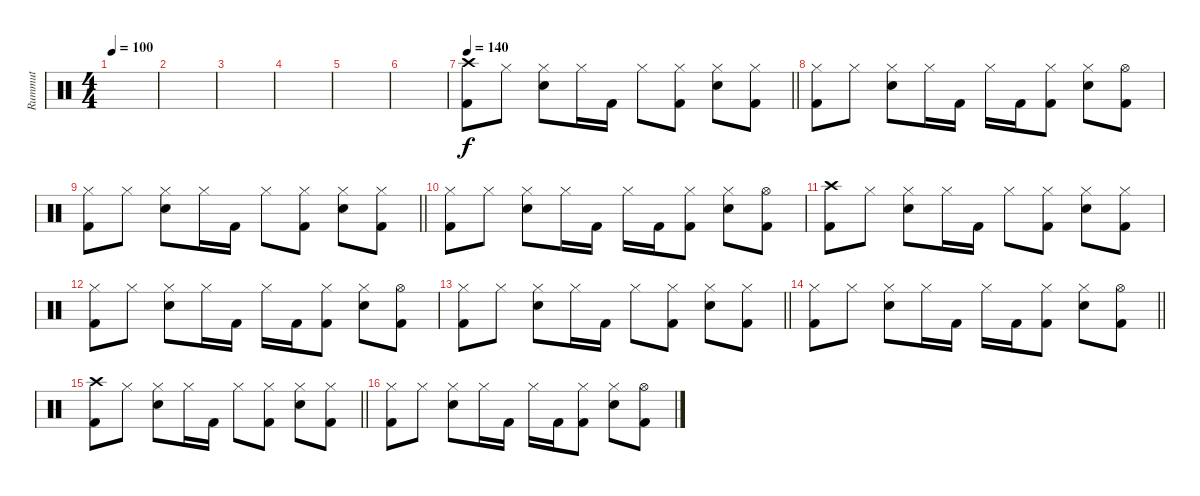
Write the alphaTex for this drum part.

\track ("Rummut" "Rummut") {instrument percussion}
\staff {score}
\articulation defaults
\ts (4 4)
\tempo 100
\clef neutral
\ks c
|
|
|
|
|
|
\tempo 140
\barLineRight lightlight
("Crash high (hit)" "Kick (hit) 2").8 "Hi-Hat (closed)".8 ("Hi-Hat (closed)" "Snare (hit) 2").8 "Hi-Hat (closed)".16 "Kick (hit) 2".16 "Hi-Hat (closed)".8 ("Hi-Hat (closed)" "Kick (hit) 2").8 ("Hi-Hat (closed)" "Snare (hit) 2").8 ("Hi-Hat (closed)" "Kick (hit) 2").8 |
("Hi-Hat (closed)" "Kick (hit) 2").8 "Hi-Hat (closed)".8 ("Hi-Hat (closed)" "Snare (hit) 2").8 "Hi-Hat (closed)".16 "Kick (hit) 2".16 "Hi-Hat (closed)".16 "Kick (hit) 2".16 ("Hi-Hat (closed)" "Kick (hit) 2").8 ("Hi-Hat (closed)" "Snare (hit) 2").8 ("Hi-Hat (open)" "Kick (hit) 2").8 |
\barLineRight lightlight
("Hi-Hat (closed)" "Kick (hit) 2").8 "Hi-Hat (closed)".8 ("Hi-Hat (closed)" "Snare (hit) 2").8 "Hi-Hat (closed)".16 "Kick (hit) 2".16 "Hi-Hat (closed)".8 ("Hi-Hat (closed)" "Kick (hit) 2").8 ("Hi-Hat (closed)" "Snare (hit) 2").8 ("Hi-Hat (closed)" "Kick (hit) 2").8 |
("Hi-Hat (closed)" "Kick (hit) 2").8 "Hi-Hat (closed)".8 ("Hi-Hat (closed)" "Snare (hit) 2").8 "Hi-Hat (closed)".16 "Kick (hit) 2".16 "Hi-Hat (closed)".16 "Kick (hit) 2".16 ("Hi-Hat (closed)" "Kick (hit) 2").8 ("Hi-Hat (closed)" "Snare (hit) 2").8 ("Hi-Hat (open)" "Kick (hit) 2").8 |
("Crash high (hit)" "Kick (hit) 2").8 "Hi-Hat (closed)".8 ("Hi-Hat (closed)" "Snare (hit) 2").8 "Hi-Hat (closed)".16 "Kick (hit) 2".16 "Hi-Hat (closed)".8 ("Hi-Hat (closed)" "Kick (hit) 2").8 ("Hi-Hat (closed)" "Snare (hit) 2").8 ("Hi-Hat (closed)" "Kick (hit) 2").8 |
("Hi-Hat (closed)" "Kick (hit) 2").8 "Hi-Hat (closed)".8 ("Hi-Hat (closed)" "Snare (hit) 2").8 "Hi-Hat (closed)".16 "Kick (hit) 2".16 "Hi-Hat (closed)".16 "Kick (hit) 2".16 ("Hi-Hat (closed)" "Kick (hit) 2").8 ("Hi-Hat (closed)" "Snare (hit) 2").8 ("Hi-Hat (open)" "Kick (hit) 2").8 |
\barLineRight lightlight
("Hi-Hat (closed)" "Kick (hit) 2").8 "Hi-Hat (closed)".8 ("Hi-Hat (closed)" "Snare (hit) 2").8 "Hi-Hat (closed)".16 "Kick (hit) 2".16 "Hi-Hat (closed)".8 ("Hi-Hat (closed)" "Kick (hit) 2").8 ("Hi-Hat (closed)" "Snare (hit) 2").8 ("Hi-Hat (closed)" "Kick (hit) 2").8 |
\barLineRight lightlight
("Hi-Hat (closed)" "Kick (hit) 2").8 "Hi-Hat (closed)".8 ("Hi-Hat (closed)" "Snare (hit) 2").8 "Hi-Hat (closed)".16 "Kick (hit) 2".16 "Hi-Hat (closed)".16 "Kick (hit) 2".16 ("Hi-Hat (closed)" "Kick (hit) 2").8 ("Hi-Hat (closed)" "Snare (hit) 2").8 ("Hi-Hat (open)" "Kick (hit) 2").8 |
\barLineRight lightlight
("Crash high (hit)" "Kick (hit) 2").8 "Hi-Hat (closed)".8 ("Hi-Hat (closed)" "Snare (hit) 2").8 "Hi-Hat (closed)".16 "Kick (hit) 2".16 "Hi-Hat (closed)".8 ("Hi-Hat (closed)" "Kick (hit) 2").8 ("Hi-Hat (closed)" "Snare (hit) 2").8 ("Hi-Hat (closed)" "Kick (hit) 2").8 |
("Hi-Hat (closed)" "Kick (hit) 2").8 "Hi-Hat (closed)".8 ("Hi-Hat (closed)" "Snare (hit) 2").8 "Hi-Hat (closed)".16 "Kick (hit) 2".16 "Hi-Hat (closed)".16 "Kick (hit) 2".16 ("Hi-Hat (closed)" "Kick (hit) 2").8 ("Hi-Hat (closed)" "Snare (hit) 2").8 ("Hi-Hat (open)" "Kick (hit) 2").8
